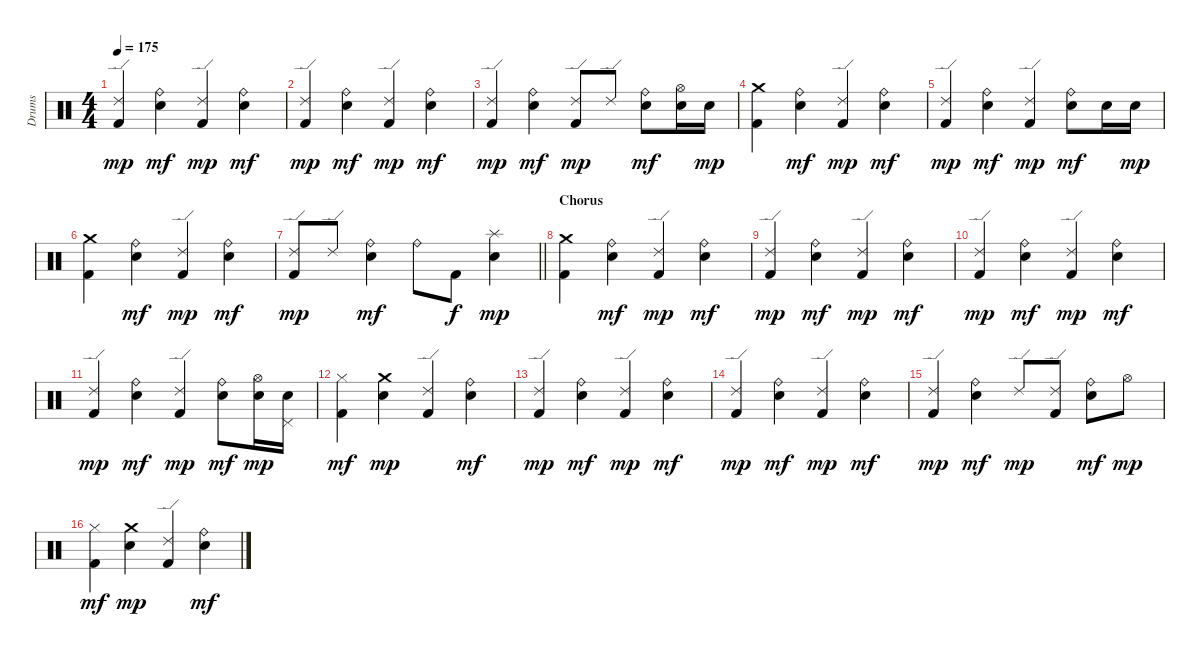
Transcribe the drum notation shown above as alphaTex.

\track ("Drums" "Drums") {instrument percussion}
\staff {score}
\articulation defaults
\ts (4 4)
\tempo 175
\clef neutral
\ks c
("Ride (edge) 2" "Kick (hit) 2").4{dy mp} ("Ride (bell)" "Electric Snare (hit)").4{dy mf} ("Ride (edge) 2" "Kick (hit) 2").4{dy mp} ("Ride (bell)" "Electric Snare (hit)").4{dy mf} |
("Ride (edge) 2" "Kick (hit) 2").4{dy mp} ("Ride (bell)" "Electric Snare (hit)").4{dy mf} ("Ride (edge) 2" "Kick (hit) 2").4{dy mp} ("Ride (bell)" "Electric Snare (hit)").4{dy mf} |
("Ride (edge) 2" "Kick (hit) 2").4{dy mp} ("Ride (bell)" "Electric Snare (hit)").4{dy mf} ("Ride (edge) 2" "Kick (hit) 2").8{dy mp} "Ride (edge) 2".8 ("Ride (bell)" "Electric Snare (hit)").8{dy mf} ("Hi-Hat (open)" "Electric Snare (hit)").16 "Electric Snare (hit)".16{dy mp} |
("Crash medium (hit)" "Kick (hit) 2").4 ("Ride (bell)" "Electric Snare (hit)").4{dy mf} ("Ride (edge) 2" "Kick (hit) 2").4{dy mp} ("Ride (bell)" "Electric Snare (hit)").4{dy mf} |
("Ride (edge) 2" "Kick (hit) 2").4{dy mp} ("Ride (bell)" "Electric Snare (hit)").4{dy mf} ("Ride (edge) 2" "Kick (hit) 2").4{dy mp} ("Ride (bell)" "Electric Snare (hit)").8{dy mf} "Electric Snare (hit)".16 "Electric Snare (hit)".16{dy mp} |
("Crash medium (hit)" "Kick (hit) 2").4 ("Ride (bell)" "Electric Snare (hit)").4{dy mf} ("Ride (edge) 2" "Kick (hit) 2").4{dy mp} ("Ride (bell)" "Electric Snare (hit)").4{dy mf} |
\barLineRight lightlight
("Ride (edge) 2" "Kick (hit) 2").8{dy mp} "Ride (edge) 2".8 ("Ride (bell)" "Electric Snare (hit)").4{dy mf} "Ride (bell)".8 "Kick (hit) 2".8{dy f} ("Splash (hit)" "Electric Snare (hit)").4{dy mp} |
\section ("" "Chorus")
("Crash medium (hit)" "Kick (hit) 2").4 ("Ride (bell)" "Electric Snare (hit)").4{dy mf} ("Ride (edge) 2" "Kick (hit) 2").4{dy mp} ("Ride (bell)" "Electric Snare (hit)").4{dy mf} |
("Ride (edge) 2" "Kick (hit) 2").4{dy mp} ("Ride (bell)" "Electric Snare (hit)").4{dy mf} ("Ride (edge) 2" "Kick (hit) 2").4{dy mp} ("Ride (bell)" "Electric Snare (hit)").4{dy mf} |
("Ride (edge) 2" "Kick (hit) 2").4{dy mp} ("Ride (bell)" "Electric Snare (hit)").4{dy mf} ("Ride (edge) 2" "Kick (hit) 2").4{dy mp} ("Ride (bell)" "Electric Snare (hit)").4{dy mf} |
("Ride (edge) 2" "Kick (hit) 2").4{dy mp} ("Ride (bell)" "Electric Snare (hit)").4{dy mf} ("Ride (edge) 2" "Kick (hit) 2").4{dy mp} ("Ride (bell)" "Electric Snare (hit)").8{dy mf} ("Hi-Hat (open)" "Electric Snare (hit)").16{dy mp} ("Pedal Hi-Hat (hit)" "Electric Snare (hit)").16 |
("Hi-Hat (closed)" "Kick (hit) 2").4{dy mf} ("Crash medium (hit)" "Electric Snare (hit)").4{dy mp} ("Ride (edge) 2" "Kick (hit) 2").4 ("Ride (bell)" "Electric Snare (hit)").4{dy mf} |
("Ride (edge) 2" "Kick (hit) 2").4{dy mp} ("Ride (bell)" "Electric Snare (hit)").4{dy mf} ("Ride (edge) 2" "Kick (hit) 2").4{dy mp} ("Ride (bell)" "Electric Snare (hit)").4{dy mf} |
("Ride (edge) 2" "Kick (hit) 2").4{dy mp} ("Ride (bell)" "Electric Snare (hit)").4{dy mf} ("Ride (edge) 2" "Kick (hit) 2").4{dy mp} ("Ride (bell)" "Electric Snare (hit)").4{dy mf} |
("Ride (edge) 2" "Kick (hit) 2").4{dy mp} ("Ride (bell)" "Electric Snare (hit)").4{dy mf} "Ride (edge) 2".8{dy mp} ("Ride (edge) 2" "Kick (hit) 2").8 ("Ride (bell)" "Electric Snare (hit)").8{dy mf} "Hi-Hat (open)".8{dy mp} |
("Hi-Hat (closed)" "Kick (hit) 2").4{dy mf} ("Crash medium (hit)" "Electric Snare (hit)").4{dy mp} ("Ride (edge) 2" "Kick (hit) 2").4 ("Ride (bell)" "Electric Snare (hit)").4{dy mf}
